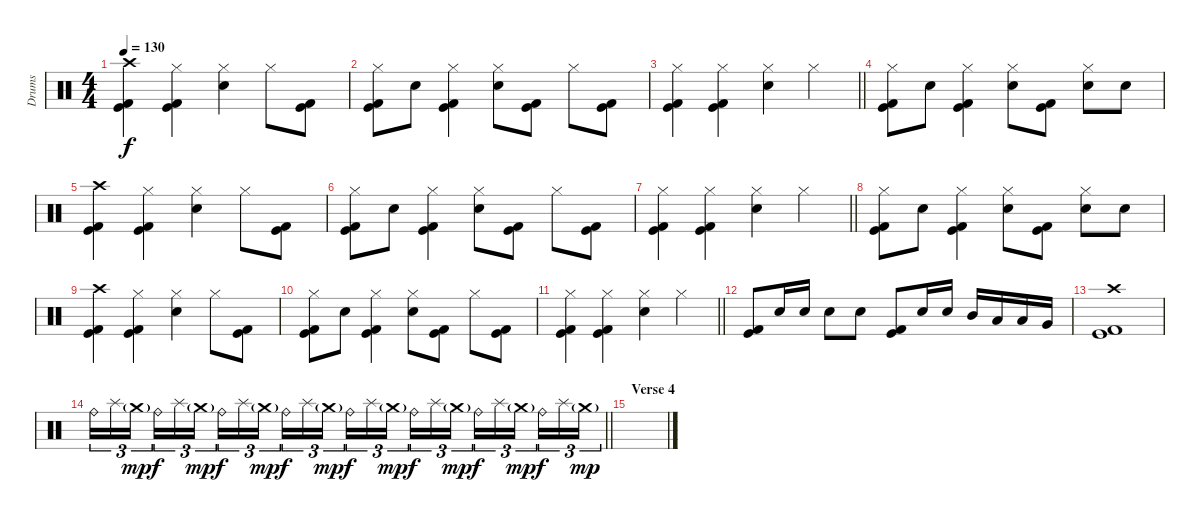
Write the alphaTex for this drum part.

\track ("Drums" "Drums") {instrument percussion}
\staff {score}
\articulation defaults
\ts (4 4)
\tempo 130
\clef neutral
\ks c
("Crash high (hit)" "Kick (hit)" "Kick (hit) 2").4{dy f} ("Hi-Hat (closed)" "Kick (hit)" "Kick (hit) 2").4 ("Hi-Hat (closed)" "Electric Snare (hit)").4 "Hi-Hat (closed)".8 ("Kick (hit)" "Kick (hit) 2").8 |
("Hi-Hat (closed)" "Kick (hit)" "Kick (hit) 2").8 "Electric Snare (hit)".8 ("Hi-Hat (closed)" "Kick (hit)" "Kick (hit) 2").4 ("Hi-Hat (closed)" "Electric Snare (hit)").8 ("Kick (hit)" "Kick (hit) 2").8 "Hi-Hat (closed)".8 ("Kick (hit)" "Kick (hit) 2").8 |
\barLineRight lightlight
("Hi-Hat (closed)" "Kick (hit)" "Kick (hit) 2").4 ("Hi-Hat (closed)" "Kick (hit)" "Kick (hit) 2").4 ("Hi-Hat (closed)" "Electric Snare (hit)").4 "Hi-Hat (closed)".4 |
("Hi-Hat (closed)" "Kick (hit)" "Kick (hit) 2").8 "Electric Snare (hit)".8 ("Hi-Hat (closed)" "Kick (hit)" "Kick (hit) 2").4 ("Hi-Hat (closed)" "Electric Snare (hit)").8 ("Kick (hit)" "Kick (hit) 2").8 ("Hi-Hat (closed)" "Electric Snare (hit)").8 "Electric Snare (hit)".8 |
("Crash high (hit)" "Kick (hit)" "Kick (hit) 2").4 ("Hi-Hat (closed)" "Kick (hit)" "Kick (hit) 2").4 ("Hi-Hat (closed)" "Electric Snare (hit)").4 "Hi-Hat (closed)".8 ("Kick (hit)" "Kick (hit) 2").8 |
("Hi-Hat (closed)" "Kick (hit)" "Kick (hit) 2").8 "Electric Snare (hit)".8 ("Hi-Hat (closed)" "Kick (hit)" "Kick (hit) 2").4 ("Hi-Hat (closed)" "Electric Snare (hit)").8 ("Kick (hit)" "Kick (hit) 2").8 "Hi-Hat (closed)".8 ("Kick (hit)" "Kick (hit) 2").8 |
\barLineRight lightlight
("Hi-Hat (closed)" "Kick (hit)" "Kick (hit) 2").4 ("Hi-Hat (closed)" "Kick (hit)" "Kick (hit) 2").4 ("Hi-Hat (closed)" "Electric Snare (hit)").4 "Hi-Hat (closed)".4 |
("Hi-Hat (closed)" "Kick (hit)" "Kick (hit) 2").8 "Electric Snare (hit)".8 ("Hi-Hat (closed)" "Kick (hit)" "Kick (hit) 2").4 ("Hi-Hat (closed)" "Electric Snare (hit)").8 ("Kick (hit)" "Kick (hit) 2").8 ("Hi-Hat (closed)" "Electric Snare (hit)").8 "Electric Snare (hit)".8 |
("Crash high (hit)" "Kick (hit)" "Kick (hit) 2").4 ("Hi-Hat (closed)" "Kick (hit)" "Kick (hit) 2").4 ("Hi-Hat (closed)" "Electric Snare (hit)").4 "Hi-Hat (closed)".8 ("Kick (hit)" "Kick (hit) 2").8 |
("Hi-Hat (closed)" "Kick (hit)" "Kick (hit) 2").8 "Electric Snare (hit)".8 ("Hi-Hat (closed)" "Kick (hit)" "Kick (hit) 2").4 ("Hi-Hat (closed)" "Electric Snare (hit)").8 ("Kick (hit)" "Kick (hit) 2").8 "Hi-Hat (closed)".8 ("Kick (hit)" "Kick (hit) 2").8 |
\barLineRight lightlight
("Hi-Hat (closed)" "Kick (hit)" "Kick (hit) 2").4 ("Hi-Hat (closed)" "Kick (hit)" "Kick (hit) 2").4 ("Hi-Hat (closed)" "Electric Snare (hit)").4 "Hi-Hat (closed)".4 |
("Kick (hit)" "Kick (hit) 2").8 "Electric Snare (hit)".16 "Electric Snare (hit)".16 "Electric Snare (hit)".8 "Electric Snare (hit)".8 ("Kick (hit)" "Kick (hit) 2").8 "Electric Snare (hit)".16 "Electric Snare (hit)".16 "Mid Tom (hit)".16 "Low Tom (hit)".16 "Low Tom (hit)".16 "Very Low Tom (hit)".16 |
("Crash high (hit)" "Kick (hit)" "Kick (hit) 2").1 |
\barLineRight lightlight "Ride (bell)".16{tu (3 2)} "Splash (hit)".16{tu (3 2)} "Crash medium (hit)"{g}.16{tu (3 2) dy mp beam splitsecondary} "Ride (bell)".16{tu (3 2) dy f} "Splash (hit)".16{tu (3 2)} "Crash medium (hit)"{g}.16{tu (3 2) dy mp} "Ride (bell)".16{tu (3 2) dy f} "Splash (hit)".16{tu (3 2)} "Crash medium (hit)"{g}.16{tu (3 2) dy mp beam splitsecondary} "Ride (bell)".16{tu (3 2) dy f} "Splash (hit)".16{tu (3 2)} "Crash medium (hit)"{g}.16{tu (3 2) dy mp} "Ride (bell)".16{tu (3 2) dy f} "Splash (hit)".16{tu (3 2)} "Crash medium (hit)"{g}.16{tu (3 2) dy mp beam splitsecondary} "Ride (bell)".16{tu (3 2) dy f} "Splash (hit)".16{tu (3 2)} "Crash medium (hit)"{g}.16{tu (3 2) dy mp} "Ride (bell)".16{tu (3 2) dy f} "Splash (hit)".16{tu (3 2)} "Crash medium (hit)"{g}.16{tu (3 2) dy mp beam splitsecondary} "Ride (bell)".16{tu (3 2) dy f} "Splash (hit)".16{tu (3 2)} "Crash medium (hit)"{g}.16{tu (3 2) dy mp}
|
\section ("" "Verse 4")
